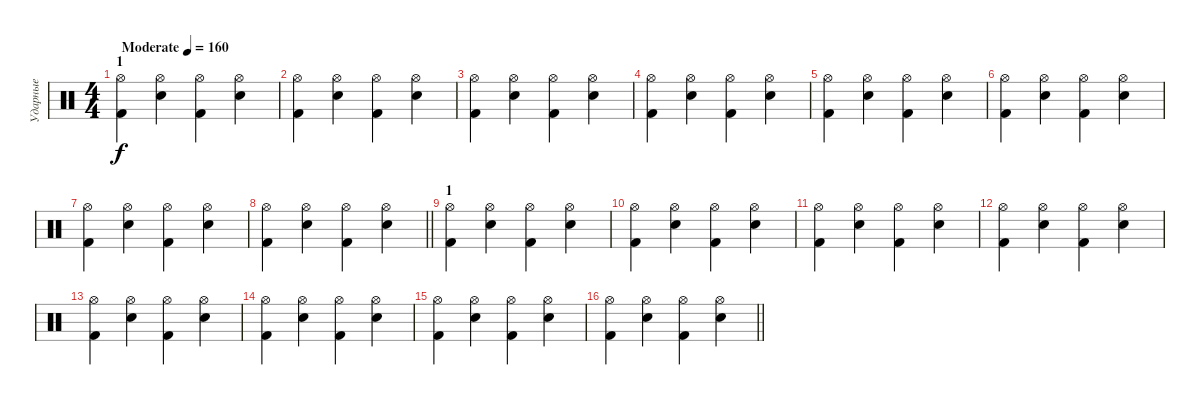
\track ("Ударные" "Ударные") {instrument percussion}
\staff {score}
\articulation defaults
\ts (4 4)
\section ("" "1")
\tempo (160 "Moderate")
\clef neutral
\ks c
("Hi-Hat (open)" "Kick (hit) 2").4{dy f} ("Hi-Hat (open)" "Electric Snare (hit)").4 ("Hi-Hat (open)" "Kick (hit) 2").4 ("Hi-Hat (open)" "Electric Snare (hit)").4 |
("Hi-Hat (open)" "Kick (hit) 2").4 ("Hi-Hat (open)" "Electric Snare (hit)").4 ("Hi-Hat (open)" "Kick (hit) 2").4 ("Hi-Hat (open)" "Electric Snare (hit)").4 |
("Hi-Hat (open)" "Kick (hit) 2").4 ("Hi-Hat (open)" "Electric Snare (hit)").4 ("Hi-Hat (open)" "Kick (hit) 2").4 ("Hi-Hat (open)" "Electric Snare (hit)").4 |
("Hi-Hat (open)" "Kick (hit) 2").4 ("Hi-Hat (open)" "Electric Snare (hit)").4 ("Hi-Hat (open)" "Kick (hit) 2").4 ("Hi-Hat (open)" "Electric Snare (hit)").4 |
("Hi-Hat (open)" "Kick (hit) 2").4 ("Hi-Hat (open)" "Electric Snare (hit)").4 ("Hi-Hat (open)" "Kick (hit) 2").4 ("Hi-Hat (open)" "Electric Snare (hit)").4 |
("Hi-Hat (open)" "Kick (hit) 2").4 ("Hi-Hat (open)" "Electric Snare (hit)").4 ("Hi-Hat (open)" "Kick (hit) 2").4 ("Hi-Hat (open)" "Electric Snare (hit)").4 |
("Hi-Hat (open)" "Kick (hit) 2").4 ("Hi-Hat (open)" "Electric Snare (hit)").4 ("Hi-Hat (open)" "Kick (hit) 2").4 ("Hi-Hat (open)" "Electric Snare (hit)").4 |
\barLineRight lightlight
("Hi-Hat (open)" "Kick (hit) 2").4 ("Hi-Hat (open)" "Electric Snare (hit)").4 ("Hi-Hat (open)" "Kick (hit) 2").4 ("Hi-Hat (open)" "Electric Snare (hit)").4 |
\section ("" "1")
("Hi-Hat (open)" "Kick (hit) 2").4 ("Hi-Hat (open)" "Electric Snare (hit)").4 ("Hi-Hat (open)" "Kick (hit) 2").4 ("Hi-Hat (open)" "Electric Snare (hit)").4 |
("Hi-Hat (open)" "Kick (hit) 2").4 ("Hi-Hat (open)" "Electric Snare (hit)").4 ("Hi-Hat (open)" "Kick (hit) 2").4 ("Hi-Hat (open)" "Electric Snare (hit)").4 |
("Hi-Hat (open)" "Kick (hit) 2").4 ("Hi-Hat (open)" "Electric Snare (hit)").4 ("Hi-Hat (open)" "Kick (hit) 2").4 ("Hi-Hat (open)" "Electric Snare (hit)").4 |
("Hi-Hat (open)" "Kick (hit) 2").4 ("Hi-Hat (open)" "Electric Snare (hit)").4 ("Hi-Hat (open)" "Kick (hit) 2").4 ("Hi-Hat (open)" "Electric Snare (hit)").4 |
("Hi-Hat (open)" "Kick (hit) 2").4 ("Hi-Hat (open)" "Electric Snare (hit)").4 ("Hi-Hat (open)" "Kick (hit) 2").4 ("Hi-Hat (open)" "Electric Snare (hit)").4 |
("Hi-Hat (open)" "Kick (hit) 2").4 ("Hi-Hat (open)" "Electric Snare (hit)").4 ("Hi-Hat (open)" "Kick (hit) 2").4 ("Hi-Hat (open)" "Electric Snare (hit)").4 |
("Hi-Hat (open)" "Kick (hit) 2").4 ("Hi-Hat (open)" "Electric Snare (hit)").4 ("Hi-Hat (open)" "Kick (hit) 2").4 ("Hi-Hat (open)" "Electric Snare (hit)").4 |
\barLineRight lightlight
("Hi-Hat (open)" "Kick (hit) 2").4 ("Hi-Hat (open)" "Electric Snare (hit)").4 ("Hi-Hat (open)" "Kick (hit) 2").4 ("Hi-Hat (open)" "Electric Snare (hit)").4
